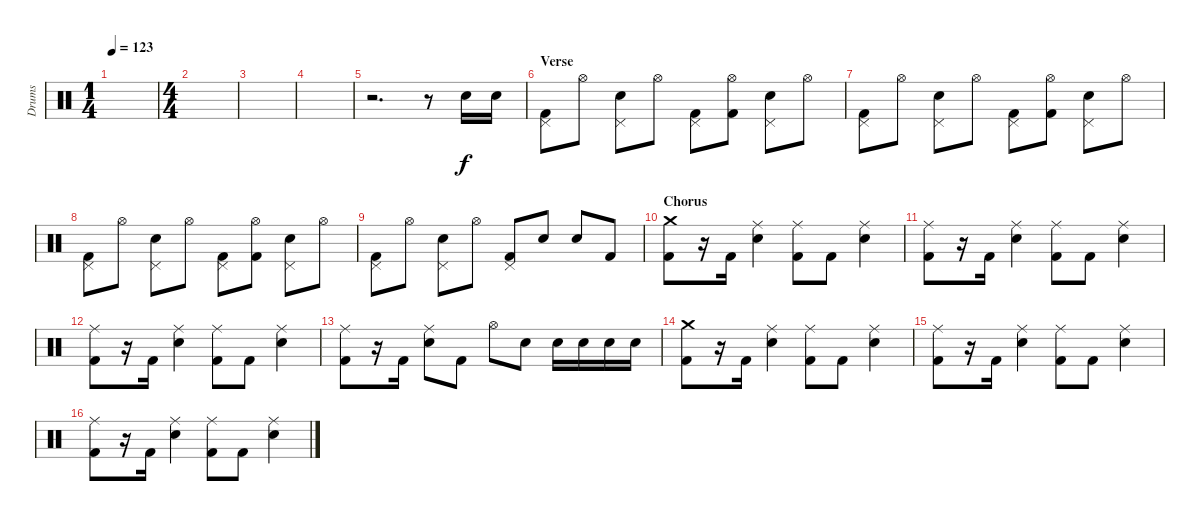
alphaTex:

\track ("Drums" "Drums") {instrument percussion}
\staff {score}
\articulation defaults
\ts (1 4)
\tempo 123
\clef neutral
\ks c
|
\ts (4 4)
|
|
|
r.2{d} r.8 "Electric Snare (hit)".16 "Electric Snare (hit)".16 |
\section ("" "Verse")
("Pedal Hi-Hat (hit)" "Kick (hit) 2").8 "Hi-Hat (open)".8 ("Electric Snare (hit)" "Pedal Hi-Hat (hit)").8 "Hi-Hat (open)".8 ("Kick (hit) 2" "Pedal Hi-Hat (hit)").8 ("Hi-Hat (open)" "Kick (hit) 2").8 ("Electric Snare (hit)" "Pedal Hi-Hat (hit)").8 "Hi-Hat (open)".8 |
("Pedal Hi-Hat (hit)" "Kick (hit) 2").8 "Hi-Hat (open)".8 ("Electric Snare (hit)" "Pedal Hi-Hat (hit)").8 "Hi-Hat (open)".8 ("Kick (hit) 2" "Pedal Hi-Hat (hit)").8 ("Hi-Hat (open)" "Kick (hit) 2").8 ("Electric Snare (hit)" "Pedal Hi-Hat (hit)").8 "Hi-Hat (open)".8 |
("Pedal Hi-Hat (hit)" "Kick (hit) 2").8 "Hi-Hat (open)".8 ("Electric Snare (hit)" "Pedal Hi-Hat (hit)").8 "Hi-Hat (open)".8 ("Kick (hit) 2" "Pedal Hi-Hat (hit)").8 ("Hi-Hat (open)" "Kick (hit) 2").8 ("Electric Snare (hit)" "Pedal Hi-Hat (hit)").8 "Hi-Hat (open)".8 |
("Pedal Hi-Hat (hit)" "Kick (hit) 2").8 "Hi-Hat (open)".8 ("Electric Snare (hit)" "Pedal Hi-Hat (hit)").8 "Hi-Hat (open)".8 ("Kick (hit) 2" "Pedal Hi-Hat (hit)").8 "Electric Snare (hit)".8 "Electric Snare (hit)".8 "Kick (hit) 2".8 |
\section ("" "Chorus")
("Crash medium (hit)" "Kick (hit) 2").8 r.16 "Kick (hit) 2".16 ("Ride (middle)" "Electric Snare (hit)").4 ("Ride (middle)" "Kick (hit) 2").8 "Kick (hit) 2".8 ("Ride (middle)" "Electric Snare (hit)").4 |
("Ride (middle)" "Kick (hit) 2").8 r.16 "Kick (hit) 2".16 ("Ride (middle)" "Electric Snare (hit)").4 ("Ride (middle)" "Kick (hit) 2").8 "Kick (hit) 2".8 ("Ride (middle)" "Electric Snare (hit)").4 |
("Ride (middle)" "Kick (hit) 2").8 r.16 "Kick (hit) 2".16 ("Ride (middle)" "Electric Snare (hit)").4 ("Ride (middle)" "Kick (hit) 2").8 "Kick (hit) 2".8 ("Ride (middle)" "Electric Snare (hit)").4 |
("Ride (middle)" "Kick (hit) 2").8 r.16 "Kick (hit) 2".16 ("Ride (middle)" "Electric Snare (hit)").8 "Kick (hit) 2".8 "Hi-Hat (open)".8 "Electric Snare (hit)".8 "Electric Snare (hit)".16 "Electric Snare (hit)".16 "Electric Snare (hit)".16 "Electric Snare (hit)".16 |
("Crash medium (hit)" "Kick (hit) 2").8 r.16 "Kick (hit) 2".16 ("Ride (middle)" "Electric Snare (hit)").4 ("Ride (middle)" "Kick (hit) 2").8 "Kick (hit) 2".8 ("Ride (middle)" "Electric Snare (hit)").4 |
("Ride (middle)" "Kick (hit) 2").8 r.16 "Kick (hit) 2".16 ("Ride (middle)" "Electric Snare (hit)").4 ("Ride (middle)" "Kick (hit) 2").8 "Kick (hit) 2".8 ("Ride (middle)" "Electric Snare (hit)").4 |
("Ride (middle)" "Kick (hit) 2").8 r.16 "Kick (hit) 2".16 ("Ride (middle)" "Electric Snare (hit)").4 ("Ride (middle)" "Kick (hit) 2").8 "Kick (hit) 2".8 ("Ride (middle)" "Electric Snare (hit)").4
